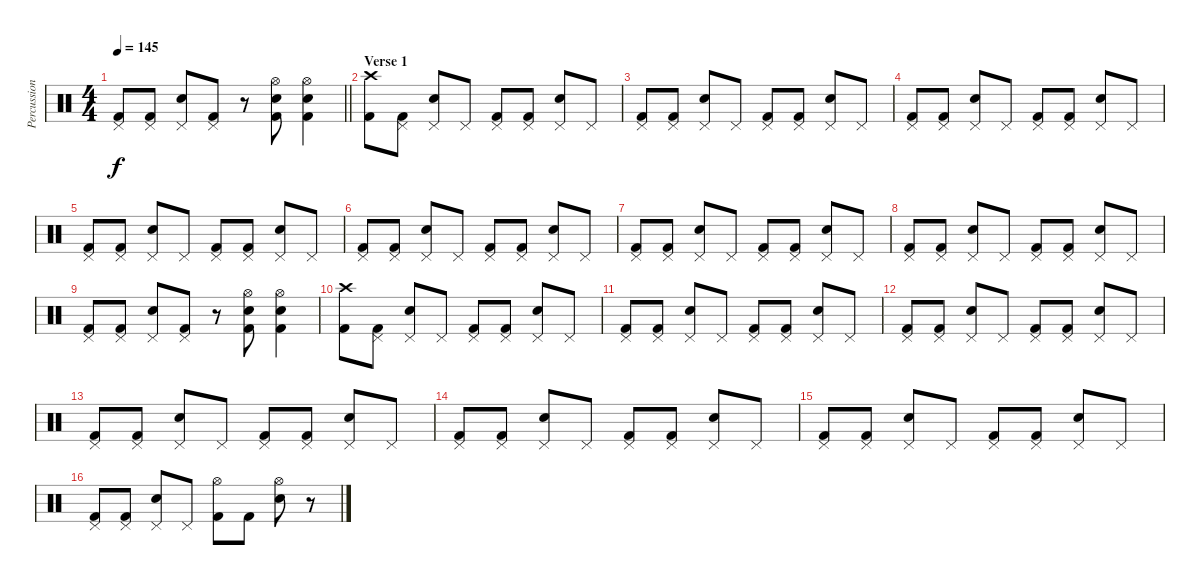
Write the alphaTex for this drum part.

\track ("Percussion" "Percussion") {instrument percussion}
\staff {score}
\articulation defaults
\ts (4 4)
\tempo 145
\clef neutral
\barLineRight lightlight
\ks c
("Pedal Hi-Hat (hit)" "Kick (hit) 2").8{dy f} ("Pedal Hi-Hat (hit)" "Kick (hit) 2").8 ("Pedal Hi-Hat (hit)" "Snare (hit) 2").8 ("Pedal Hi-Hat (hit)" "Kick (hit) 2").8 r.8 ("Hi-Hat (open)" "Snare (hit) 2" "Kick (hit) 2").8 ("Hi-Hat (open)" "Snare (hit) 2" "Kick (hit) 2").4 |
\section ("" "Verse 1")
("Crash high (hit)" "Kick (hit) 2").8 ("Pedal Hi-Hat (hit)" "Kick (hit) 2").8 ("Pedal Hi-Hat (hit)" "Snare (hit) 2").8 "Pedal Hi-Hat (hit)".8 ("Pedal Hi-Hat (hit)" "Kick (hit) 2").8 ("Pedal Hi-Hat (hit)" "Kick (hit) 2").8 ("Pedal Hi-Hat (hit)" "Snare (hit) 2").8 "Pedal Hi-Hat (hit)".8 |
("Pedal Hi-Hat (hit)" "Kick (hit) 2").8 ("Pedal Hi-Hat (hit)" "Kick (hit) 2").8 ("Pedal Hi-Hat (hit)" "Snare (hit) 2").8 "Pedal Hi-Hat (hit)".8 ("Pedal Hi-Hat (hit)" "Kick (hit) 2").8 ("Pedal Hi-Hat (hit)" "Kick (hit) 2").8 ("Pedal Hi-Hat (hit)" "Snare (hit) 2").8 "Pedal Hi-Hat (hit)".8 |
("Pedal Hi-Hat (hit)" "Kick (hit) 2").8 ("Pedal Hi-Hat (hit)" "Kick (hit) 2").8 ("Pedal Hi-Hat (hit)" "Snare (hit) 2").8 "Pedal Hi-Hat (hit)".8 ("Pedal Hi-Hat (hit)" "Kick (hit) 2").8 ("Pedal Hi-Hat (hit)" "Kick (hit) 2").8 ("Pedal Hi-Hat (hit)" "Snare (hit) 2").8 "Pedal Hi-Hat (hit)".8 |
("Pedal Hi-Hat (hit)" "Kick (hit) 2").8 ("Pedal Hi-Hat (hit)" "Kick (hit) 2").8 ("Pedal Hi-Hat (hit)" "Snare (hit) 2").8 "Pedal Hi-Hat (hit)".8 ("Pedal Hi-Hat (hit)" "Kick (hit) 2").8 ("Pedal Hi-Hat (hit)" "Kick (hit) 2").8 ("Pedal Hi-Hat (hit)" "Snare (hit) 2").8 "Pedal Hi-Hat (hit)".8 |
("Pedal Hi-Hat (hit)" "Kick (hit) 2").8 ("Pedal Hi-Hat (hit)" "Kick (hit) 2").8 ("Pedal Hi-Hat (hit)" "Snare (hit) 2").8 "Pedal Hi-Hat (hit)".8 ("Pedal Hi-Hat (hit)" "Kick (hit) 2").8 ("Pedal Hi-Hat (hit)" "Kick (hit) 2").8 ("Pedal Hi-Hat (hit)" "Snare (hit) 2").8 "Pedal Hi-Hat (hit)".8 |
("Pedal Hi-Hat (hit)" "Kick (hit) 2").8 ("Pedal Hi-Hat (hit)" "Kick (hit) 2").8 ("Pedal Hi-Hat (hit)" "Snare (hit) 2").8 "Pedal Hi-Hat (hit)".8 ("Pedal Hi-Hat (hit)" "Kick (hit) 2").8 ("Pedal Hi-Hat (hit)" "Kick (hit) 2").8 ("Pedal Hi-Hat (hit)" "Snare (hit) 2").8 "Pedal Hi-Hat (hit)".8 |
("Pedal Hi-Hat (hit)" "Kick (hit) 2").8 ("Pedal Hi-Hat (hit)" "Kick (hit) 2").8 ("Pedal Hi-Hat (hit)" "Snare (hit) 2").8 "Pedal Hi-Hat (hit)".8 ("Pedal Hi-Hat (hit)" "Kick (hit) 2").8 ("Pedal Hi-Hat (hit)" "Kick (hit) 2").8 ("Pedal Hi-Hat (hit)" "Snare (hit) 2").8 "Pedal Hi-Hat (hit)".8 |
("Pedal Hi-Hat (hit)" "Kick (hit) 2").8 ("Pedal Hi-Hat (hit)" "Kick (hit) 2").8 ("Pedal Hi-Hat (hit)" "Snare (hit) 2").8 ("Pedal Hi-Hat (hit)" "Kick (hit) 2").8 r.8 ("Hi-Hat (open)" "Snare (hit) 2" "Kick (hit) 2").8 ("Hi-Hat (open)" "Snare (hit) 2" "Kick (hit) 2").4 |
("Crash high (hit)" "Kick (hit) 2").8 ("Pedal Hi-Hat (hit)" "Kick (hit) 2").8 ("Pedal Hi-Hat (hit)" "Snare (hit) 2").8 "Pedal Hi-Hat (hit)".8 ("Pedal Hi-Hat (hit)" "Kick (hit) 2").8 ("Pedal Hi-Hat (hit)" "Kick (hit) 2").8 ("Pedal Hi-Hat (hit)" "Snare (hit) 2").8 "Pedal Hi-Hat (hit)".8 |
("Pedal Hi-Hat (hit)" "Kick (hit) 2").8 ("Pedal Hi-Hat (hit)" "Kick (hit) 2").8 ("Pedal Hi-Hat (hit)" "Snare (hit) 2").8 "Pedal Hi-Hat (hit)".8 ("Pedal Hi-Hat (hit)" "Kick (hit) 2").8 ("Pedal Hi-Hat (hit)" "Kick (hit) 2").8 ("Pedal Hi-Hat (hit)" "Snare (hit) 2").8 "Pedal Hi-Hat (hit)".8 |
("Pedal Hi-Hat (hit)" "Kick (hit) 2").8 ("Pedal Hi-Hat (hit)" "Kick (hit) 2").8 ("Pedal Hi-Hat (hit)" "Snare (hit) 2").8 "Pedal Hi-Hat (hit)".8 ("Pedal Hi-Hat (hit)" "Kick (hit) 2").8 ("Pedal Hi-Hat (hit)" "Kick (hit) 2").8 ("Pedal Hi-Hat (hit)" "Snare (hit) 2").8 "Pedal Hi-Hat (hit)".8 |
("Pedal Hi-Hat (hit)" "Kick (hit) 2").8 ("Pedal Hi-Hat (hit)" "Kick (hit) 2").8 ("Pedal Hi-Hat (hit)" "Snare (hit) 2").8 "Pedal Hi-Hat (hit)".8 ("Pedal Hi-Hat (hit)" "Kick (hit) 2").8 ("Pedal Hi-Hat (hit)" "Kick (hit) 2").8 ("Pedal Hi-Hat (hit)" "Snare (hit) 2").8 "Pedal Hi-Hat (hit)".8 |
("Pedal Hi-Hat (hit)" "Kick (hit) 2").8 ("Pedal Hi-Hat (hit)" "Kick (hit) 2").8 ("Pedal Hi-Hat (hit)" "Snare (hit) 2").8 "Pedal Hi-Hat (hit)".8 ("Pedal Hi-Hat (hit)" "Kick (hit) 2").8 ("Pedal Hi-Hat (hit)" "Kick (hit) 2").8 ("Pedal Hi-Hat (hit)" "Snare (hit) 2").8 "Pedal Hi-Hat (hit)".8 |
("Pedal Hi-Hat (hit)" "Kick (hit) 2").8 ("Pedal Hi-Hat (hit)" "Kick (hit) 2").8 ("Pedal Hi-Hat (hit)" "Snare (hit) 2").8 "Pedal Hi-Hat (hit)".8 ("Pedal Hi-Hat (hit)" "Kick (hit) 2").8 ("Pedal Hi-Hat (hit)" "Kick (hit) 2").8 ("Pedal Hi-Hat (hit)" "Snare (hit) 2").8 "Pedal Hi-Hat (hit)".8 |
("Pedal Hi-Hat (hit)" "Kick (hit) 2").8 ("Pedal Hi-Hat (hit)" "Kick (hit) 2").8 ("Pedal Hi-Hat (hit)" "Snare (hit) 2").8 "Pedal Hi-Hat (hit)".8 ("Hi-Hat (open)" "Kick (hit) 2").8 "Kick (hit) 2".8 ("Hi-Hat (open)" "Snare (hit) 2").8 r.8
